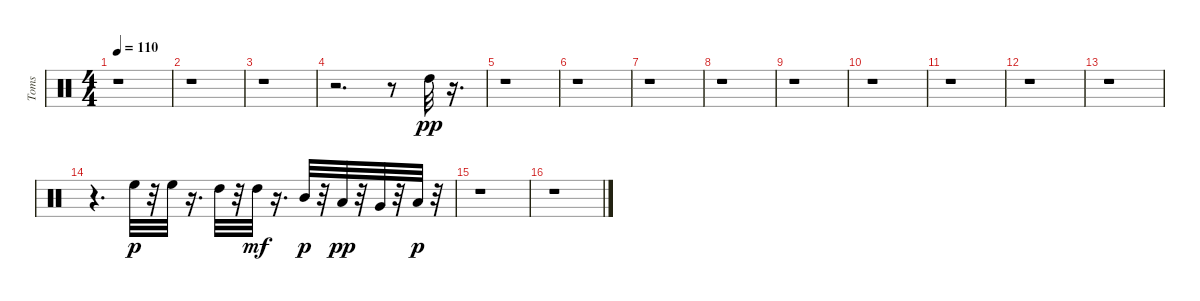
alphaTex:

\track ("Toms" "Toms") {instrument percussion}
\staff {score}
\articulation defaults
\ts (4 4)
\tempo 110
\clef neutral
\ks c
r.1{dy mp} |
r.1 |
r.1 |
r.2{d} r.8 "High Tom (hit)".32{dy pp} r.16{d} |
r.1 |
r.1 |
r.1 |
r.1 |
r.1 |
r.1 |
r.1 |
r.1 |
r.1 |
r.4{d} "High Floor Tom (hit)".32{dy p} r.32 "High Floor Tom (hit)".32 r.16{d} "High Tom (hit)".32 r.32 "High Tom (hit)".32{dy mf} r.16{d} "Mid Tom (hit)".32{dy p} r.32 "Low Tom (hit)".32{dy pp} r.32 "Very Low Tom (hit)".32 r.32 "Low Floor Tom (hit)".32{dy p} r.32 |
r.1 |
r.1
